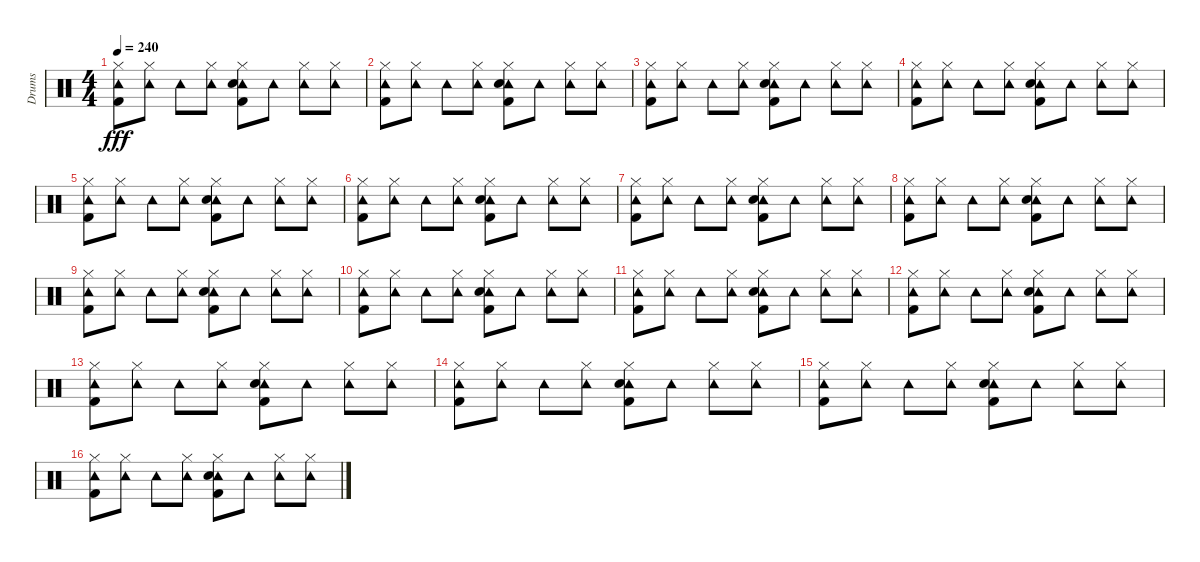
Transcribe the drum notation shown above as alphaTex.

\track ("Drums" "Drums") {instrument percussion}
\staff {score}
\articulation defaults
\ts (4 4)
\tempo 240
\clef neutral
\ks c
("Tambourine (hit)" "Hi-Hat (closed)" "Kick (hit) 2").8{dy fff} ("Tambourine (hit)" "Hi-Hat (closed)").8 "Tambourine (hit)".8 ("Tambourine (hit)" "Hi-Hat (closed)").8 ("Tambourine (hit)" "Hi-Hat (closed)" "Snare (hit) 2" "Kick (hit) 2").8 "Tambourine (hit)".8 ("Tambourine (hit)" "Hi-Hat (closed)").8 ("Tambourine (hit)" "Hi-Hat (closed)").8 |
("Tambourine (hit)" "Hi-Hat (closed)" "Kick (hit) 2").8 ("Tambourine (hit)" "Hi-Hat (closed)").8 "Tambourine (hit)".8 ("Tambourine (hit)" "Hi-Hat (closed)").8 ("Tambourine (hit)" "Hi-Hat (closed)" "Snare (hit) 2" "Kick (hit) 2").8 "Tambourine (hit)".8 ("Tambourine (hit)" "Hi-Hat (closed)").8 ("Tambourine (hit)" "Hi-Hat (closed)").8 |
("Tambourine (hit)" "Hi-Hat (closed)" "Kick (hit) 2").8 ("Tambourine (hit)" "Hi-Hat (closed)").8 "Tambourine (hit)".8 ("Tambourine (hit)" "Hi-Hat (closed)").8 ("Tambourine (hit)" "Hi-Hat (closed)" "Snare (hit) 2" "Kick (hit) 2").8 "Tambourine (hit)".8 ("Tambourine (hit)" "Hi-Hat (closed)").8 ("Tambourine (hit)" "Hi-Hat (closed)").8 |
("Tambourine (hit)" "Hi-Hat (closed)" "Kick (hit) 2").8 ("Tambourine (hit)" "Hi-Hat (closed)").8 "Tambourine (hit)".8 ("Tambourine (hit)" "Hi-Hat (closed)").8 ("Tambourine (hit)" "Hi-Hat (closed)" "Snare (hit) 2" "Kick (hit) 2").8 "Tambourine (hit)".8 ("Tambourine (hit)" "Hi-Hat (closed)").8 ("Tambourine (hit)" "Hi-Hat (closed)").8 |
("Tambourine (hit)" "Hi-Hat (closed)" "Kick (hit) 2").8 ("Tambourine (hit)" "Hi-Hat (closed)").8 "Tambourine (hit)".8 ("Tambourine (hit)" "Hi-Hat (closed)").8 ("Tambourine (hit)" "Hi-Hat (closed)" "Snare (hit) 2" "Kick (hit) 2").8 "Tambourine (hit)".8 ("Tambourine (hit)" "Hi-Hat (closed)").8 ("Tambourine (hit)" "Hi-Hat (closed)").8 |
("Tambourine (hit)" "Hi-Hat (closed)" "Kick (hit) 2").8 ("Tambourine (hit)" "Hi-Hat (closed)").8 "Tambourine (hit)".8 ("Tambourine (hit)" "Hi-Hat (closed)").8 ("Tambourine (hit)" "Hi-Hat (closed)" "Snare (hit) 2" "Kick (hit) 2").8 "Tambourine (hit)".8 ("Tambourine (hit)" "Hi-Hat (closed)").8 ("Tambourine (hit)" "Hi-Hat (closed)").8 |
("Tambourine (hit)" "Hi-Hat (closed)" "Kick (hit) 2").8 ("Tambourine (hit)" "Hi-Hat (closed)").8 "Tambourine (hit)".8 ("Tambourine (hit)" "Hi-Hat (closed)").8 ("Tambourine (hit)" "Hi-Hat (closed)" "Snare (hit) 2" "Kick (hit) 2").8 "Tambourine (hit)".8 ("Tambourine (hit)" "Hi-Hat (closed)").8 ("Tambourine (hit)" "Hi-Hat (closed)").8 |
("Tambourine (hit)" "Hi-Hat (closed)" "Kick (hit) 2").8 ("Tambourine (hit)" "Hi-Hat (closed)").8 "Tambourine (hit)".8 ("Tambourine (hit)" "Hi-Hat (closed)").8 ("Tambourine (hit)" "Hi-Hat (closed)" "Snare (hit) 2" "Kick (hit) 2").8 "Tambourine (hit)".8 ("Tambourine (hit)" "Hi-Hat (closed)").8 ("Tambourine (hit)" "Hi-Hat (closed)").8 |
("Tambourine (hit)" "Hi-Hat (closed)" "Kick (hit) 2").8 ("Tambourine (hit)" "Hi-Hat (closed)").8 "Tambourine (hit)".8 ("Tambourine (hit)" "Hi-Hat (closed)").8 ("Tambourine (hit)" "Hi-Hat (closed)" "Hand Clap (hit)" "Kick (hit) 2").8 "Tambourine (hit)".8 ("Tambourine (hit)" "Hi-Hat (closed)").8 ("Tambourine (hit)" "Hi-Hat (closed)").8 |
("Tambourine (hit)" "Hi-Hat (closed)" "Kick (hit) 2").8 ("Tambourine (hit)" "Hi-Hat (closed)").8 "Tambourine (hit)".8 ("Tambourine (hit)" "Hi-Hat (closed)").8 ("Tambourine (hit)" "Hi-Hat (closed)" "Hand Clap (hit)" "Kick (hit) 2").8 "Tambourine (hit)".8 ("Tambourine (hit)" "Hi-Hat (closed)").8 ("Tambourine (hit)" "Hi-Hat (closed)").8 |
("Tambourine (hit)" "Hi-Hat (closed)" "Kick (hit) 2").8 ("Tambourine (hit)" "Hi-Hat (closed)").8 "Tambourine (hit)".8 ("Tambourine (hit)" "Hi-Hat (closed)").8 ("Tambourine (hit)" "Hi-Hat (closed)" "Hand Clap (hit)" "Kick (hit) 2").8 "Tambourine (hit)".8 ("Tambourine (hit)" "Hi-Hat (closed)").8 ("Tambourine (hit)" "Hi-Hat (closed)").8 |
("Tambourine (hit)" "Hi-Hat (closed)" "Kick (hit) 2").8 ("Tambourine (hit)" "Hi-Hat (closed)").8 "Tambourine (hit)".8 ("Tambourine (hit)" "Hi-Hat (closed)").8 ("Tambourine (hit)" "Hi-Hat (closed)" "Hand Clap (hit)" "Kick (hit) 2").8 "Tambourine (hit)".8 ("Tambourine (hit)" "Hi-Hat (closed)").8 ("Tambourine (hit)" "Hi-Hat (closed)").8 |
("Tambourine (hit)" "Hi-Hat (closed)" "Kick (hit) 2").8 ("Tambourine (hit)" "Hi-Hat (closed)").8 "Tambourine (hit)".8 ("Tambourine (hit)" "Hi-Hat (closed)").8 ("Tambourine (hit)" "Hi-Hat (closed)" "Hand Clap (hit)" "Kick (hit) 2").8 "Tambourine (hit)".8 ("Tambourine (hit)" "Hi-Hat (closed)").8 ("Tambourine (hit)" "Hi-Hat (closed)").8 |
("Tambourine (hit)" "Hi-Hat (closed)" "Kick (hit) 2").8 ("Tambourine (hit)" "Hi-Hat (closed)").8 "Tambourine (hit)".8 ("Tambourine (hit)" "Hi-Hat (closed)").8 ("Tambourine (hit)" "Hi-Hat (closed)" "Hand Clap (hit)" "Kick (hit) 2").8 "Tambourine (hit)".8 ("Tambourine (hit)" "Hi-Hat (closed)").8 ("Tambourine (hit)" "Hi-Hat (closed)").8 |
("Tambourine (hit)" "Hi-Hat (closed)" "Kick (hit) 2").8 ("Tambourine (hit)" "Hi-Hat (closed)").8 "Tambourine (hit)".8 ("Tambourine (hit)" "Hi-Hat (closed)").8 ("Tambourine (hit)" "Hi-Hat (closed)" "Hand Clap (hit)" "Kick (hit) 2").8 "Tambourine (hit)".8 ("Tambourine (hit)" "Hi-Hat (closed)").8 ("Tambourine (hit)" "Hi-Hat (closed)").8 |
("Tambourine (hit)" "Hi-Hat (closed)" "Kick (hit) 2").8 ("Tambourine (hit)" "Hi-Hat (closed)").8 "Tambourine (hit)".8 ("Tambourine (hit)" "Hi-Hat (closed)").8 ("Tambourine (hit)" "Hi-Hat (closed)" "Hand Clap (hit)" "Kick (hit) 2").8 "Tambourine (hit)".8 ("Tambourine (hit)" "Hi-Hat (closed)").8 ("Tambourine (hit)" "Hi-Hat (closed)").8
